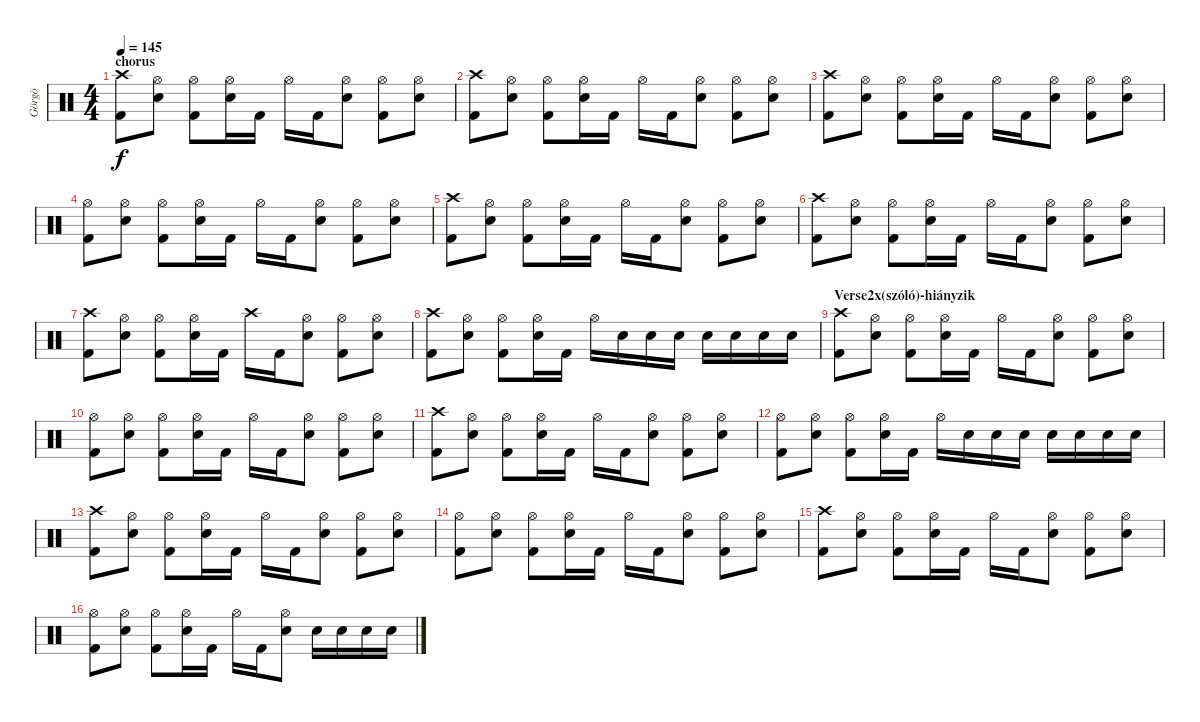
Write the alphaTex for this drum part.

\track ("Görgö" "Görgö") {instrument percussion}
\staff {score}
\articulation defaults
\ts (4 4)
\section ("" "chorus")
\tempo 145
\clef neutral
\ks c
("Crash high (hit)" "Kick (hit) 2").8{dy f} ("Hi-Hat (open)" "Snare (hit) 2").8 ("Hi-Hat (open)" "Kick (hit) 2").8 ("Hi-Hat (open)" "Snare (hit) 2").16 "Kick (hit) 2".16 "Hi-Hat (open)".16 "Kick (hit) 2".16 ("Hi-Hat (open)" "Snare (hit) 2").8 ("Hi-Hat (open)" "Kick (hit) 2").8 ("Hi-Hat (open)" "Snare (hit) 2").8 |
("Crash high (hit)" "Kick (hit) 2").8 ("Hi-Hat (open)" "Snare (hit) 2").8 ("Hi-Hat (open)" "Kick (hit) 2").8 ("Hi-Hat (open)" "Snare (hit) 2").16 "Kick (hit) 2".16 "Hi-Hat (open)".16 "Kick (hit) 2".16 ("Hi-Hat (open)" "Snare (hit) 2").8 ("Hi-Hat (open)" "Kick (hit) 2").8 ("Hi-Hat (open)" "Snare (hit) 2").8 |
("Crash high (hit)" "Kick (hit) 2").8 ("Hi-Hat (open)" "Snare (hit) 2").8 ("Hi-Hat (open)" "Kick (hit) 2").8 ("Hi-Hat (open)" "Snare (hit) 2").16 "Kick (hit) 2".16 "Hi-Hat (open)".16 "Kick (hit) 2".16 ("Hi-Hat (open)" "Snare (hit) 2").8 ("Hi-Hat (open)" "Kick (hit) 2").8 ("Hi-Hat (open)" "Snare (hit) 2").8 |
("Hi-Hat (open)" "Kick (hit) 2").8 ("Hi-Hat (open)" "Snare (hit) 2").8 ("Hi-Hat (open)" "Kick (hit) 2").8 ("Hi-Hat (open)" "Snare (hit) 2").16 "Kick (hit) 2".16 "Hi-Hat (open)".16 "Kick (hit) 2".16 ("Hi-Hat (open)" "Snare (hit) 2").8 ("Hi-Hat (open)" "Kick (hit) 2").8 ("Hi-Hat (open)" "Snare (hit) 2").8 |
("Crash high (hit)" "Kick (hit) 2").8 ("Hi-Hat (open)" "Snare (hit) 2").8 ("Hi-Hat (open)" "Kick (hit) 2").8 ("Hi-Hat (open)" "Snare (hit) 2").16 "Kick (hit) 2".16 "Hi-Hat (open)".16 "Kick (hit) 2".16 ("Hi-Hat (open)" "Snare (hit) 2").8 ("Hi-Hat (open)" "Kick (hit) 2").8 ("Hi-Hat (open)" "Snare (hit) 2").8 |
("Crash high (hit)" "Kick (hit) 2").8 ("Hi-Hat (open)" "Snare (hit) 2").8 ("Hi-Hat (open)" "Kick (hit) 2").8 ("Hi-Hat (open)" "Snare (hit) 2").16 "Kick (hit) 2".16 "Hi-Hat (open)".16 "Kick (hit) 2".16 ("Hi-Hat (open)" "Snare (hit) 2").8 ("Hi-Hat (open)" "Kick (hit) 2").8 ("Hi-Hat (open)" "Snare (hit) 2").8 |
("Crash high (hit)" "Kick (hit) 2").8 ("Hi-Hat (open)" "Snare (hit) 2").8 ("Hi-Hat (open)" "Kick (hit) 2").8 ("Hi-Hat (open)" "Snare (hit) 2").16 "Kick (hit) 2".16 "Crash high (hit)".16 "Kick (hit) 2".16 ("Hi-Hat (open)" "Snare (hit) 2").8 ("Hi-Hat (open)" "Kick (hit) 2").8 ("Hi-Hat (open)" "Snare (hit) 2").8 |
("Crash high (hit)" "Kick (hit) 2").8 ("Hi-Hat (open)" "Snare (hit) 2").8 ("Hi-Hat (open)" "Kick (hit) 2").8 ("Hi-Hat (open)" "Snare (hit) 2").16 "Kick (hit) 2".16 "Hi-Hat (open)".16 "Snare (hit) 2".16 "Snare (hit) 2".16 "Snare (hit) 2".16 "Snare (hit) 2".16 "Snare (hit) 2".16 "Snare (hit) 2".16 "Snare (hit) 2".16 |
\section ("" "Verse2x(szóló)-hiányzik")
("Crash high (hit)" "Kick (hit) 2").8 ("Hi-Hat (open)" "Snare (hit) 2").8 ("Hi-Hat (open)" "Kick (hit) 2").8 ("Hi-Hat (open)" "Snare (hit) 2").16 "Kick (hit) 2".16 "Hi-Hat (open)".16 "Kick (hit) 2".16 ("Hi-Hat (open)" "Snare (hit) 2").8 ("Hi-Hat (open)" "Kick (hit) 2").8 ("Hi-Hat (open)" "Snare (hit) 2").8 |
("Hi-Hat (open)" "Kick (hit) 2").8 ("Hi-Hat (open)" "Snare (hit) 2").8 ("Hi-Hat (open)" "Kick (hit) 2").8 ("Hi-Hat (open)" "Snare (hit) 2").16 "Kick (hit) 2".16 "Hi-Hat (open)".16 "Kick (hit) 2".16 ("Hi-Hat (open)" "Snare (hit) 2").8 ("Hi-Hat (open)" "Kick (hit) 2").8 ("Hi-Hat (open)" "Snare (hit) 2").8 |
("Crash high (hit)" "Kick (hit) 2").8 ("Hi-Hat (open)" "Snare (hit) 2").8 ("Hi-Hat (open)" "Kick (hit) 2").8 ("Hi-Hat (open)" "Snare (hit) 2").16 "Kick (hit) 2".16 "Hi-Hat (open)".16 "Kick (hit) 2".16 ("Hi-Hat (open)" "Snare (hit) 2").8 ("Hi-Hat (open)" "Kick (hit) 2").8 ("Hi-Hat (open)" "Snare (hit) 2").8 |
("Hi-Hat (open)" "Kick (hit) 2").8 ("Hi-Hat (open)" "Snare (hit) 2").8 ("Hi-Hat (open)" "Kick (hit) 2").8 ("Hi-Hat (open)" "Snare (hit) 2").16 "Kick (hit) 2".16 "Hi-Hat (open)".16 "Snare (hit) 2".16 "Snare (hit) 2".16 "Snare (hit) 2".16 "Snare (hit) 2".16 "Snare (hit) 2".16 "Snare (hit) 2".16 "Snare (hit) 2".16 |
("Crash high (hit)" "Kick (hit) 2").8 ("Hi-Hat (open)" "Snare (hit) 2").8 ("Hi-Hat (open)" "Kick (hit) 2").8 ("Hi-Hat (open)" "Snare (hit) 2").16 "Kick (hit) 2".16 "Hi-Hat (open)".16 "Kick (hit) 2".16 ("Hi-Hat (open)" "Snare (hit) 2").8 ("Hi-Hat (open)" "Kick (hit) 2").8 ("Hi-Hat (open)" "Snare (hit) 2").8 |
("Hi-Hat (open)" "Kick (hit) 2").8 ("Hi-Hat (open)" "Snare (hit) 2").8 ("Hi-Hat (open)" "Kick (hit) 2").8 ("Hi-Hat (open)" "Snare (hit) 2").16 "Kick (hit) 2".16 "Hi-Hat (open)".16 "Kick (hit) 2".16 ("Hi-Hat (open)" "Snare (hit) 2").8 ("Hi-Hat (open)" "Kick (hit) 2").8 ("Hi-Hat (open)" "Snare (hit) 2").8 |
("Crash high (hit)" "Kick (hit) 2").8 ("Hi-Hat (open)" "Snare (hit) 2").8 ("Hi-Hat (open)" "Kick (hit) 2").8 ("Hi-Hat (open)" "Snare (hit) 2").16 "Kick (hit) 2".16 "Hi-Hat (open)".16 "Kick (hit) 2".16 ("Hi-Hat (open)" "Snare (hit) 2").8 ("Hi-Hat (open)" "Kick (hit) 2").8 ("Hi-Hat (open)" "Snare (hit) 2").8 |
("Hi-Hat (open)" "Kick (hit) 2").8 ("Hi-Hat (open)" "Snare (hit) 2").8 ("Hi-Hat (open)" "Kick (hit) 2").8 ("Hi-Hat (open)" "Snare (hit) 2").16 "Kick (hit) 2".16 "Hi-Hat (open)".16 "Kick (hit) 2".16 ("Hi-Hat (open)" "Snare (hit) 2").8 "Snare (hit) 2".16 "Snare (hit) 2".16 "Snare (hit) 2".16 "Snare (hit) 2".16
